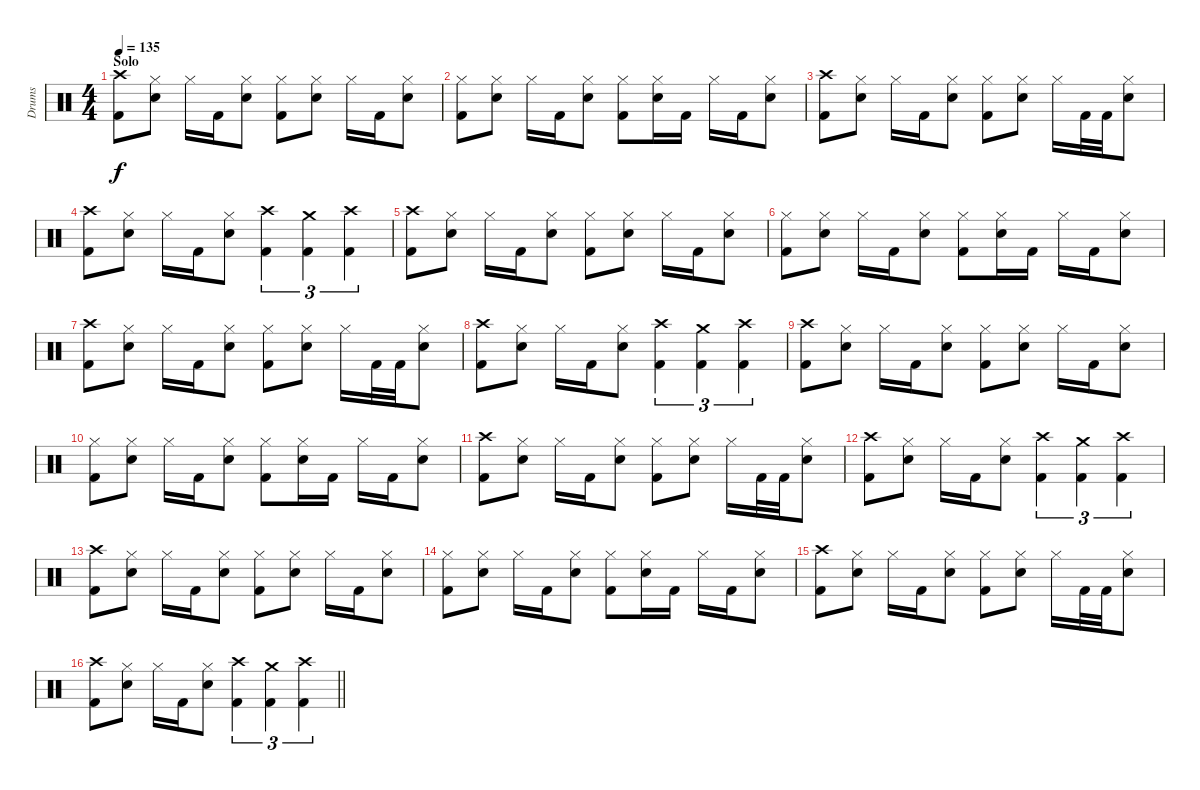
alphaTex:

\track ("Drums" "Drums") {instrument percussion}
\staff {score}
\articulation defaults
\ts (4 4)
\section ("" "Solo")
\tempo 135
\clef neutral
\ks c
("Crash high (hit)" "Kick (hit) 2").8{dy f} ("Hi-Hat (closed)" "Snare (hit) 2").8 "Hi-Hat (closed)".16 "Kick (hit) 2".16 ("Hi-Hat (closed)" "Snare (hit) 2").8 ("Hi-Hat (closed)" "Kick (hit) 2").8 ("Hi-Hat (closed)" "Snare (hit) 2").8 "Hi-Hat (closed)".16 "Kick (hit) 2".16 ("Hi-Hat (closed)" "Snare (hit) 2").8 |
("Hi-Hat (closed)" "Kick (hit) 2").8 ("Hi-Hat (closed)" "Snare (hit) 2").8 "Hi-Hat (closed)".16 "Kick (hit) 2".16 ("Hi-Hat (closed)" "Snare (hit) 2").8 ("Hi-Hat (closed)" "Kick (hit) 2").8 ("Hi-Hat (closed)" "Snare (hit) 2").16 "Kick (hit) 2".16 "Hi-Hat (closed)".16 "Kick (hit) 2".16 ("Hi-Hat (closed)" "Snare (hit) 2").8 |
("Crash high (hit)" "Kick (hit) 2").8 ("Hi-Hat (closed)" "Snare (hit) 2").8 "Hi-Hat (closed)".16 "Kick (hit) 2".16 ("Hi-Hat (closed)" "Snare (hit) 2").8 ("Hi-Hat (closed)" "Kick (hit) 2").8 ("Hi-Hat (closed)" "Snare (hit) 2").8 "Hi-Hat (closed)".16 "Kick (hit) 2".32 "Kick (hit) 2".32 ("Hi-Hat (closed)" "Snare (hit) 2").8 |
("Crash high (hit)" "Kick (hit) 2").8 ("Hi-Hat (closed)" "Snare (hit) 2").8 "Hi-Hat (closed)".16 "Kick (hit) 2".16 ("Hi-Hat (closed)" "Snare (hit) 2").8 ("Crash high (hit)" "Kick (hit) 2").4{tu (3 2)} ("Crash medium (hit)" "Kick (hit) 2").4{tu (3 2)} ("Crash high (hit)" "Kick (hit) 2").4{tu (3 2)} |
("Crash high (hit)" "Kick (hit) 2").8 ("Hi-Hat (closed)" "Snare (hit) 2").8 "Hi-Hat (closed)".16 "Kick (hit) 2".16 ("Hi-Hat (closed)" "Snare (hit) 2").8 ("Hi-Hat (closed)" "Kick (hit) 2").8 ("Hi-Hat (closed)" "Snare (hit) 2").8 "Hi-Hat (closed)".16 "Kick (hit) 2".16 ("Hi-Hat (closed)" "Snare (hit) 2").8 |
("Hi-Hat (closed)" "Kick (hit) 2").8 ("Hi-Hat (closed)" "Snare (hit) 2").8 "Hi-Hat (closed)".16 "Kick (hit) 2".16 ("Hi-Hat (closed)" "Snare (hit) 2").8 ("Hi-Hat (closed)" "Kick (hit) 2").8 ("Hi-Hat (closed)" "Snare (hit) 2").16 "Kick (hit) 2".16 "Hi-Hat (closed)".16 "Kick (hit) 2".16 ("Hi-Hat (closed)" "Snare (hit) 2").8 |
("Crash high (hit)" "Kick (hit) 2").8 ("Hi-Hat (closed)" "Snare (hit) 2").8 "Hi-Hat (closed)".16 "Kick (hit) 2".16 ("Hi-Hat (closed)" "Snare (hit) 2").8 ("Hi-Hat (closed)" "Kick (hit) 2").8 ("Hi-Hat (closed)" "Snare (hit) 2").8 "Hi-Hat (closed)".16 "Kick (hit) 2".32 "Kick (hit) 2".32 ("Hi-Hat (closed)" "Snare (hit) 2").8 |
("Crash high (hit)" "Kick (hit) 2").8 ("Hi-Hat (closed)" "Snare (hit) 2").8 "Hi-Hat (closed)".16 "Kick (hit) 2".16 ("Hi-Hat (closed)" "Snare (hit) 2").8 ("Crash high (hit)" "Kick (hit) 2").4{tu (3 2)} ("Crash medium (hit)" "Kick (hit) 2").4{tu (3 2)} ("Crash high (hit)" "Kick (hit) 2").4{tu (3 2)} |
("Crash high (hit)" "Kick (hit) 2").8 ("Hi-Hat (closed)" "Snare (hit) 2").8 "Hi-Hat (closed)".16 "Kick (hit) 2".16 ("Hi-Hat (closed)" "Snare (hit) 2").8 ("Hi-Hat (closed)" "Kick (hit) 2").8 ("Hi-Hat (closed)" "Snare (hit) 2").8 "Hi-Hat (closed)".16 "Kick (hit) 2".16 ("Hi-Hat (closed)" "Snare (hit) 2").8 |
("Hi-Hat (closed)" "Kick (hit) 2").8 ("Hi-Hat (closed)" "Snare (hit) 2").8 "Hi-Hat (closed)".16 "Kick (hit) 2".16 ("Hi-Hat (closed)" "Snare (hit) 2").8 ("Hi-Hat (closed)" "Kick (hit) 2").8 ("Hi-Hat (closed)" "Snare (hit) 2").16 "Kick (hit) 2".16 "Hi-Hat (closed)".16 "Kick (hit) 2".16 ("Hi-Hat (closed)" "Snare (hit) 2").8 |
("Crash high (hit)" "Kick (hit) 2").8 ("Hi-Hat (closed)" "Snare (hit) 2").8 "Hi-Hat (closed)".16 "Kick (hit) 2".16 ("Hi-Hat (closed)" "Snare (hit) 2").8 ("Hi-Hat (closed)" "Kick (hit) 2").8 ("Hi-Hat (closed)" "Snare (hit) 2").8 "Hi-Hat (closed)".16 "Kick (hit) 2".32 "Kick (hit) 2".32 ("Hi-Hat (closed)" "Snare (hit) 2").8 |
("Crash high (hit)" "Kick (hit) 2").8 ("Hi-Hat (closed)" "Snare (hit) 2").8 "Hi-Hat (closed)".16 "Kick (hit) 2".16 ("Hi-Hat (closed)" "Snare (hit) 2").8 ("Crash high (hit)" "Kick (hit) 2").4{tu (3 2)} ("Crash medium (hit)" "Kick (hit) 2").4{tu (3 2)} ("Crash high (hit)" "Kick (hit) 2").4{tu (3 2)} |
("Crash high (hit)" "Kick (hit) 2").8 ("Hi-Hat (closed)" "Snare (hit) 2").8 "Hi-Hat (closed)".16 "Kick (hit) 2".16 ("Hi-Hat (closed)" "Snare (hit) 2").8 ("Hi-Hat (closed)" "Kick (hit) 2").8 ("Hi-Hat (closed)" "Snare (hit) 2").8 "Hi-Hat (closed)".16 "Kick (hit) 2".16 ("Hi-Hat (closed)" "Snare (hit) 2").8 |
("Hi-Hat (closed)" "Kick (hit) 2").8 ("Hi-Hat (closed)" "Snare (hit) 2").8 "Hi-Hat (closed)".16 "Kick (hit) 2".16 ("Hi-Hat (closed)" "Snare (hit) 2").8 ("Hi-Hat (closed)" "Kick (hit) 2").8 ("Hi-Hat (closed)" "Snare (hit) 2").16 "Kick (hit) 2".16 "Hi-Hat (closed)".16 "Kick (hit) 2".16 ("Hi-Hat (closed)" "Snare (hit) 2").8 |
("Crash high (hit)" "Kick (hit) 2").8 ("Hi-Hat (closed)" "Snare (hit) 2").8 "Hi-Hat (closed)".16 "Kick (hit) 2".16 ("Hi-Hat (closed)" "Snare (hit) 2").8 ("Hi-Hat (closed)" "Kick (hit) 2").8 ("Hi-Hat (closed)" "Snare (hit) 2").8 "Hi-Hat (closed)".16 "Kick (hit) 2".32 "Kick (hit) 2".32 ("Hi-Hat (closed)" "Snare (hit) 2").8 |
\barLineRight lightlight
("Crash high (hit)" "Kick (hit) 2").8 ("Hi-Hat (closed)" "Snare (hit) 2").8 "Hi-Hat (closed)".16 "Kick (hit) 2".16 ("Hi-Hat (closed)" "Snare (hit) 2").8 ("Crash high (hit)" "Kick (hit) 2").4{tu (3 2)} ("Crash medium (hit)" "Kick (hit) 2").4{tu (3 2)} ("Crash high (hit)" "Kick (hit) 2").4{tu (3 2)}
